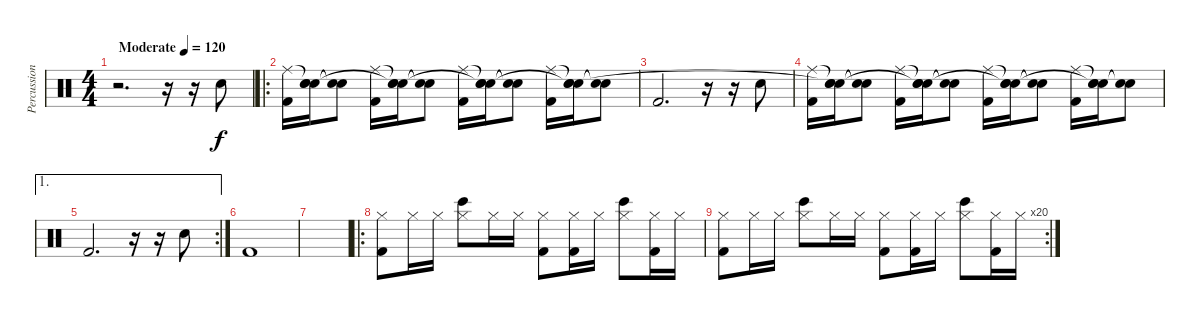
\track ("Percussion" "Percussion") {instrument percussion}
\staff {score}
\articulation defaults
\ts (4 4)
\tempo (120 "Moderate")
\clef neutral
\ks c
r.2{d dy f} r.16 r.16 "Snare (hit) 2".8 |
\ro
("Ride (middle)" "Kick (hit) 2").16 ("Snare (hit)"{t} "Snare (hit) 2" "Snare (hit)").16 ("Snare (hit)"{t} "Snare (hit)"{t}).8 ("Ride (middle)" "Kick (hit) 2").16 ("Snare (hit)"{t} "Snare (hit) 2" "Snare (hit)"{t}).16 ("Snare (hit)"{t} "Snare (hit)"{t}).8 ("Ride (middle)" "Kick (hit) 2").16 ("Snare (hit)"{t} "Snare (hit) 2" "Snare (hit)"{t}).16 ("Snare (hit)"{t} "Snare (hit)"{t}).8 ("Ride (middle)" "Kick (hit) 2").16 ("Snare (hit)"{t} "Snare (hit) 2" "Snare (hit)"{t}).16 ("Snare (hit)"{t} "Snare (hit)"{t}).8 |
"Kick (hit) 2".2{d} r.16 r.16 "Snare (hit) 2".8 |
("Ride (middle)" "Kick (hit) 2").16 ("Snare (hit)"{t} "Snare (hit) 2" "Snare (hit)"{t}).16 ("Snare (hit)"{t} "Snare (hit)"{t}).8 ("Ride (middle)" "Kick (hit) 2").16 ("Snare (hit)"{t} "Snare (hit) 2" "Snare (hit)"{t}).16 ("Snare (hit)"{t} "Snare (hit)"{t}).8 ("Ride (middle)" "Kick (hit) 2").16 ("Snare (hit)"{t} "Snare (hit) 2" "Snare (hit)"{t}).16 ("Snare (hit)"{t} "Snare (hit)"{t}).8 ("Ride (middle)" "Kick (hit) 2").16 ("Snare (hit)"{t} "Snare (hit) 2" "Snare (hit)"{t}).16 ("Snare (hit)"{t} "Snare (hit)"{t}).8 |
\ae 1
\rc 2 "Kick (hit) 2".2{d}
r.16 r.16 "Snare (hit) 2".8 |
"Kick (hit) 2".1 |
|
\ro
("Hi-Hat (closed)" "Kick (hit) 2").8 "Hi-Hat (closed)".16 "Hi-Hat (closed)".16 ("Hi-Hat (closed)" "Bongo High (hit)").8 "Hi-Hat (closed)".16 "Hi-Hat (closed)".16 ("Hi-Hat (closed)" "Kick (hit) 2").8 ("Hi-Hat (closed)" "Kick (hit) 2").16 "Hi-Hat (closed)".16 ("Hi-Hat (closed)" "Bongo High (hit)").8 ("Hi-Hat (closed)" "Kick (hit) 2").16 "Hi-Hat (closed)".16 |
\rc 20
("Hi-Hat (closed)" "Kick (hit) 2").8 "Hi-Hat (closed)".16 "Hi-Hat (closed)".16 ("Hi-Hat (closed)" "Bongo High (hit)").8 "Hi-Hat (closed)".16 "Hi-Hat (closed)".16 ("Hi-Hat (closed)" "Kick (hit) 2").8 ("Hi-Hat (closed)" "Kick (hit) 2").16 "Hi-Hat (closed)".16 ("Hi-Hat (closed)" "Bongo High (hit)").8 ("Hi-Hat (closed)" "Kick (hit) 2").16 "Hi-Hat (closed)".16
